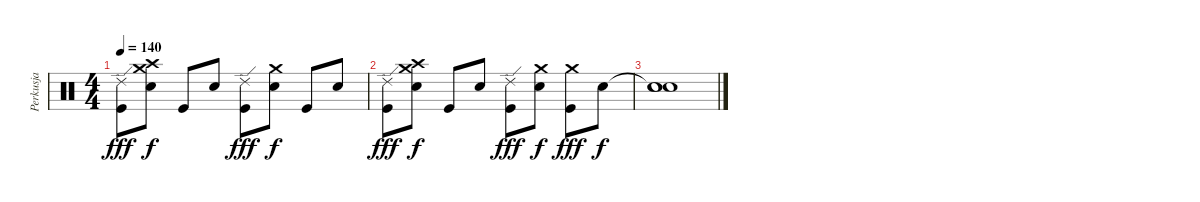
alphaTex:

\track ("Perkusja" "Perkusja") {instrument percussion}
\staff {score}
\articulation defaults
\ts (4 4)
\tempo 140
\clef neutral
\ks c
("Kick (hit)" "Ride (edge) 2").8{dy fff volume 0} ("Snare (hit) 2" "Crash medium (hit)" "Crash high (hit)").8{dy f} "Kick (hit)".8 "Snare (hit) 2".8 ("Kick (hit)" "Ride (edge) 2").8{dy fff} ("Snare (hit) 2" "Crash medium (hit)").8{dy f} "Kick (hit)".8 "Snare (hit) 2".8 |
("Kick (hit)" "Ride (edge) 2").8{dy fff} ("Snare (hit) 2" "Crash medium (hit)" "Crash high (hit)").8{dy f} "Kick (hit)".8 "Snare (hit) 2".8 ("Kick (hit)" "Ride (edge) 2").8{dy fff} ("Snare (hit) 2" "Crash medium (hit)").8{dy f} ("Kick (hit)" "Crash medium (hit)").8{dy fff} "Snare (hit) 2".8{dy f} |
("Snare (hit)"{t} "Snare (hit)"{x} "Snare (hit)"{x}).1
